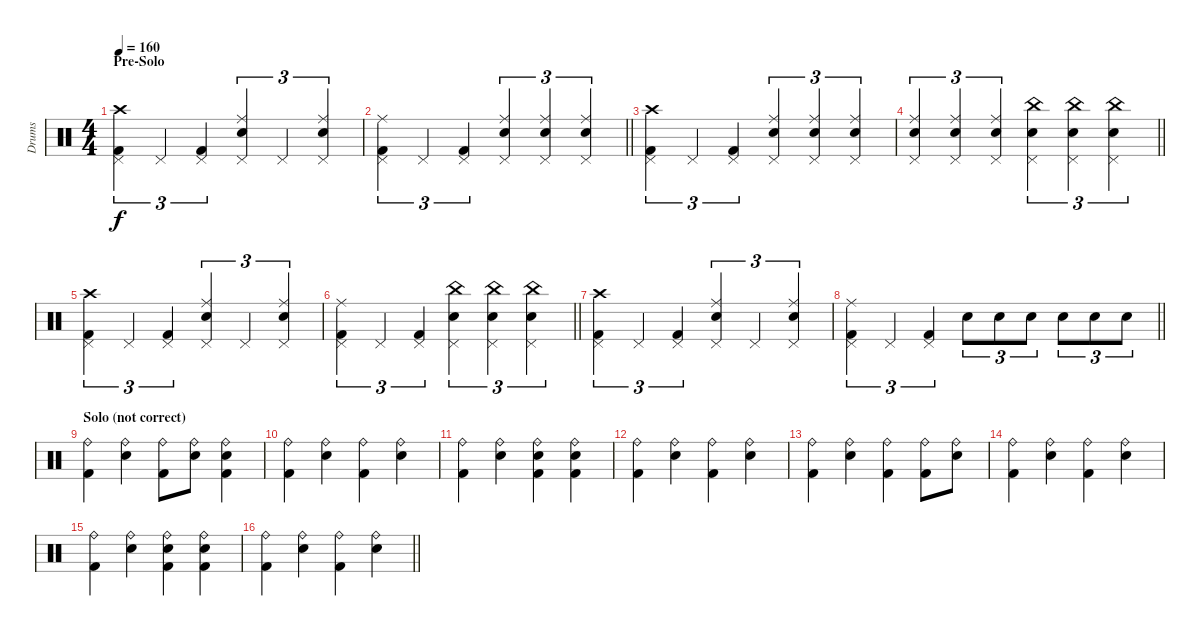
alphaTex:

\track ("Drums" "Drums") {instrument percussion}
\staff {score}
\articulation defaults
\ts (4 4)
\section ("" "Pre-Solo")
\tempo 160
\clef neutral
\ks c
("Kick (hit) 2" "Pedal Hi-Hat (hit)" "Crash high (hit)").4{tu (3 2) dy f} "Pedal Hi-Hat (hit)".4{tu (3 2)} ("Kick (hit) 2" "Pedal Hi-Hat (hit)").4{tu (3 2)} ("Snare (hit) 2" "Pedal Hi-Hat (hit)" "Ride (middle)").4{tu (3 2)} "Pedal Hi-Hat (hit)".4{tu (3 2)} ("Snare (hit) 2" "Pedal Hi-Hat (hit)" "Ride (middle)").4{tu (3 2)} |
\barLineRight lightlight
("Kick (hit) 2" "Pedal Hi-Hat (hit)" "Ride (middle)").4{tu (3 2)} "Pedal Hi-Hat (hit)".4{tu (3 2)} ("Kick (hit) 2" "Pedal Hi-Hat (hit)").4{tu (3 2)} ("Snare (hit) 2" "Pedal Hi-Hat (hit)" "Ride (middle)").4{tu (3 2)} ("Snare (hit) 2" "Pedal Hi-Hat (hit)" "Ride (middle)").4{tu (3 2)} ("Snare (hit) 2" "Pedal Hi-Hat (hit)" "Ride (middle)").4{tu (3 2)} |
("Kick (hit) 2" "Pedal Hi-Hat (hit)" "Crash high (hit)").4{tu (3 2)} "Pedal Hi-Hat (hit)".4{tu (3 2)} ("Kick (hit) 2" "Pedal Hi-Hat (hit)").4{tu (3 2)} ("Snare (hit) 2" "Pedal Hi-Hat (hit)" "Ride (middle)").4{tu (3 2)} ("Snare (hit) 2" "Pedal Hi-Hat (hit)" "Ride (middle)").4{tu (3 2)} ("Snare (hit) 2" "Pedal Hi-Hat (hit)" "Ride (middle)").4{tu (3 2)} |
\barLineRight lightlight
("Snare (hit) 2" "Pedal Hi-Hat (hit)" "Ride (middle)").4{tu (3 2)} ("Snare (hit) 2" "Pedal Hi-Hat (hit)" "Ride (middle)").4{tu (3 2)} ("Snare (hit) 2" "Pedal Hi-Hat (hit)" "Ride (middle)").4{tu (3 2)} ("Snare (hit) 2" "Pedal Hi-Hat (hit)" "China (hit)").4{tu (3 2)} ("Snare (hit) 2" "Pedal Hi-Hat (hit)" "China (hit)").4{tu (3 2)} ("Snare (hit) 2" "Pedal Hi-Hat (hit)" "China (hit)").4{tu (3 2)} |
("Kick (hit) 2" "Pedal Hi-Hat (hit)" "Crash high (hit)").4{tu (3 2)} "Pedal Hi-Hat (hit)".4{tu (3 2)} ("Kick (hit) 2" "Pedal Hi-Hat (hit)").4{tu (3 2)} ("Snare (hit) 2" "Pedal Hi-Hat (hit)" "Ride (middle)").4{tu (3 2)} "Pedal Hi-Hat (hit)".4{tu (3 2)} ("Snare (hit) 2" "Pedal Hi-Hat (hit)" "Ride (middle)").4{tu (3 2)} |
\barLineRight lightlight
("Kick (hit) 2" "Pedal Hi-Hat (hit)" "Ride (middle)").4{tu (3 2)} "Pedal Hi-Hat (hit)".4{tu (3 2)} ("Kick (hit) 2" "Pedal Hi-Hat (hit)").4{tu (3 2)} ("Snare (hit) 2" "Pedal Hi-Hat (hit)" "China (hit)").4{tu (3 2)} ("Snare (hit) 2" "Pedal Hi-Hat (hit)" "China (hit)").4{tu (3 2)} ("Snare (hit) 2" "Pedal Hi-Hat (hit)" "China (hit)").4{tu (3 2)} |
("Kick (hit) 2" "Pedal Hi-Hat (hit)" "Crash high (hit)").4{tu (3 2)} "Pedal Hi-Hat (hit)".4{tu (3 2)} ("Kick (hit) 2" "Pedal Hi-Hat (hit)").4{tu (3 2)} ("Snare (hit) 2" "Pedal Hi-Hat (hit)" "Ride (middle)").4{tu (3 2)} "Pedal Hi-Hat (hit)".4{tu (3 2)} ("Snare (hit) 2" "Pedal Hi-Hat (hit)" "Ride (middle)").4{tu (3 2)} |
\barLineRight lightlight
("Kick (hit) 2" "Pedal Hi-Hat (hit)" "Ride (middle)").4{tu (3 2)} "Pedal Hi-Hat (hit)".4{tu (3 2)} ("Kick (hit) 2" "Pedal Hi-Hat (hit)").4{tu (3 2)} "Snare (hit) 2".8{tu (3 2)} "Snare (hit) 2".8{tu (3 2)} "Snare (hit) 2".8{tu (3 2)} "Snare (hit) 2".8{tu (3 2)} "Snare (hit) 2".8{tu (3 2)} "Snare (hit) 2".8{tu (3 2)} |
\section ("" "Solo (not correct)")
("Ride (bell)" "Kick (hit) 2").4 ("Ride (bell)" "Snare (hit) 2").4 ("Ride (bell)" "Kick (hit) 2").8 ("Ride (bell)" "Snare (hit) 2").8 ("Ride (bell)" "Snare (hit) 2" "Kick (hit) 2").4 |
("Ride (bell)" "Kick (hit) 2").4 ("Ride (bell)" "Snare (hit) 2").4 ("Ride (bell)" "Kick (hit) 2").4 ("Ride (bell)" "Snare (hit) 2").4 |
("Ride (bell)" "Kick (hit) 2").4 ("Ride (bell)" "Snare (hit) 2").4 ("Ride (bell)" "Snare (hit) 2" "Kick (hit) 2").4 ("Ride (bell)" "Snare (hit) 2" "Kick (hit) 2").4 |
("Ride (bell)" "Kick (hit) 2").4 ("Ride (bell)" "Snare (hit) 2").4 ("Ride (bell)" "Kick (hit) 2").4 ("Ride (bell)" "Snare (hit) 2").4 |
("Ride (bell)" "Kick (hit) 2").4 ("Ride (bell)" "Snare (hit) 2").4 ("Ride (bell)" "Kick (hit) 2").4 ("Ride (bell)" "Kick (hit) 2").8 ("Ride (bell)" "Snare (hit) 2").8 |
("Ride (bell)" "Kick (hit) 2").4 ("Ride (bell)" "Snare (hit) 2").4 ("Ride (bell)" "Kick (hit) 2").4 ("Ride (bell)" "Snare (hit) 2").4 |
("Ride (bell)" "Kick (hit) 2").4 ("Ride (bell)" "Snare (hit) 2").4 ("Ride (bell)" "Snare (hit) 2" "Kick (hit) 2").4 ("Ride (bell)" "Snare (hit) 2" "Kick (hit) 2").4 |
\barLineRight lightlight
("Ride (bell)" "Kick (hit) 2").4 ("Ride (bell)" "Snare (hit) 2").4 ("Ride (bell)" "Kick (hit) 2").4 ("Ride (bell)" "Snare (hit) 2").4
